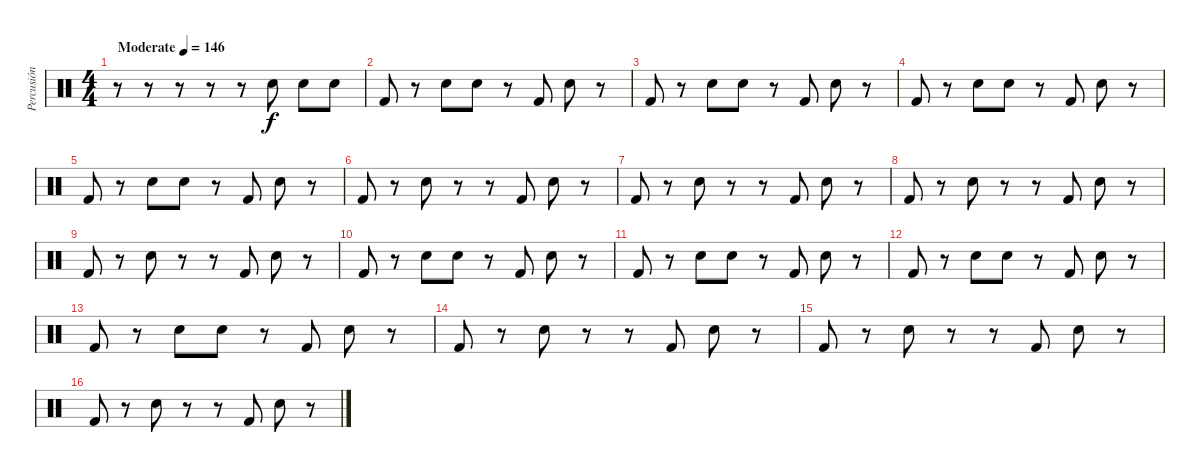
\track ("Percusión" "Percusión") {instrument percussion}
\staff {score}
\articulation defaults
\ts (4 4)
\tempo (146 "Moderate")
\clef neutral
\ks c
r.8{dy f} r.8 r.8 r.8 r.8 "Snare (hit) 2".8 "Snare (hit) 2".8 "Snare (hit) 2".8 |
"Kick (hit) 2".8 r.8 "Snare (hit) 2".8 "Snare (hit) 2".8 r.8 "Kick (hit) 2".8 "Snare (hit) 2".8 r.8 |
"Kick (hit) 2".8 r.8 "Snare (hit) 2".8 "Snare (hit) 2".8 r.8 "Kick (hit) 2".8 "Snare (hit) 2".8 r.8 |
"Kick (hit) 2".8 r.8 "Snare (hit) 2".8 "Snare (hit) 2".8 r.8 "Kick (hit) 2".8 "Snare (hit) 2".8 r.8 |
"Kick (hit) 2".8 r.8 "Snare (hit) 2".8 "Snare (hit) 2".8 r.8 "Kick (hit) 2".8 "Snare (hit) 2".8 r.8 |
"Kick (hit) 2".8 r.8 "Snare (hit) 2".8 r.8 r.8 "Kick (hit) 2".8 "Snare (hit) 2".8 r.8 |
"Kick (hit) 2".8 r.8 "Snare (hit) 2".8 r.8 r.8 "Kick (hit) 2".8 "Snare (hit) 2".8 r.8 |
"Kick (hit) 2".8 r.8 "Snare (hit) 2".8 r.8 r.8 "Kick (hit) 2".8 "Snare (hit) 2".8 r.8 |
"Kick (hit) 2".8 r.8 "Snare (hit) 2".8 r.8 r.8 "Kick (hit) 2".8 "Snare (hit) 2".8 r.8 |
"Kick (hit) 2".8 r.8 "Snare (hit) 2".8 "Snare (hit) 2".8 r.8 "Kick (hit) 2".8 "Snare (hit) 2".8 r.8 |
"Kick (hit) 2".8 r.8 "Snare (hit) 2".8 "Snare (hit) 2".8 r.8 "Kick (hit) 2".8 "Snare (hit) 2".8 r.8 |
"Kick (hit) 2".8 r.8 "Snare (hit) 2".8 "Snare (hit) 2".8 r.8 "Kick (hit) 2".8 "Snare (hit) 2".8 r.8 |
"Kick (hit) 2".8 r.8 "Snare (hit) 2".8 "Snare (hit) 2".8 r.8 "Kick (hit) 2".8 "Snare (hit) 2".8 r.8 |
"Kick (hit) 2".8 r.8 "Snare (hit) 2".8 r.8 r.8 "Kick (hit) 2".8 "Snare (hit) 2".8 r.8 |
"Kick (hit) 2".8 r.8 "Snare (hit) 2".8 r.8 r.8 "Kick (hit) 2".8 "Snare (hit) 2".8 r.8 |
"Kick (hit) 2".8 r.8 "Snare (hit) 2".8 r.8 r.8 "Kick (hit) 2".8 "Snare (hit) 2".8 r.8
